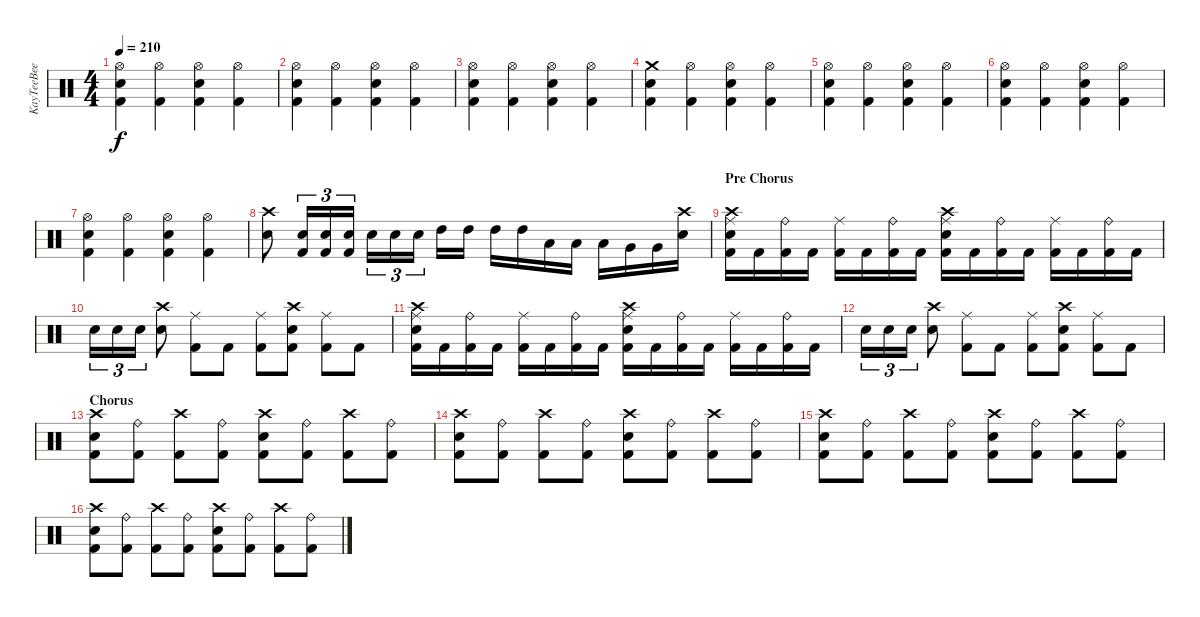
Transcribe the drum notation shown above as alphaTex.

\track ("KayTeeBee" "KayTeeBee") {instrument percussion}
\staff {score}
\articulation defaults
\ts (4 4)
\tempo 210
\clef neutral
\ks c
("Hi-Hat (open)" "Electric Snare (hit)" "Kick (hit) 2").4{dy f} ("Hi-Hat (open)" "Kick (hit) 2").4 ("Hi-Hat (open)" "Electric Snare (hit)" "Kick (hit) 2").4 ("Hi-Hat (open)" "Kick (hit) 2").4 |
("Hi-Hat (open)" "Electric Snare (hit)" "Kick (hit) 2").4 ("Hi-Hat (open)" "Kick (hit) 2").4 ("Hi-Hat (open)" "Electric Snare (hit)" "Kick (hit) 2").4 ("Hi-Hat (open)" "Kick (hit) 2").4 |
("Hi-Hat (open)" "Electric Snare (hit)" "Kick (hit) 2").4 ("Hi-Hat (open)" "Kick (hit) 2").4 ("Hi-Hat (open)" "Electric Snare (hit)" "Kick (hit) 2").4 ("Hi-Hat (open)" "Kick (hit) 2").4 |
("Crash medium (hit)" "Electric Snare (hit)" "Kick (hit) 2").4 ("Hi-Hat (open)" "Kick (hit) 2").4 ("Hi-Hat (open)" "Electric Snare (hit)" "Kick (hit) 2").4 ("Hi-Hat (open)" "Kick (hit) 2").4 |
("Hi-Hat (open)" "Electric Snare (hit)" "Kick (hit) 2").4 ("Hi-Hat (open)" "Kick (hit) 2").4 ("Hi-Hat (open)" "Electric Snare (hit)" "Kick (hit) 2").4 ("Hi-Hat (open)" "Kick (hit) 2").4 |
("Hi-Hat (open)" "Electric Snare (hit)" "Kick (hit) 2").4 ("Hi-Hat (open)" "Kick (hit) 2").4 ("Hi-Hat (open)" "Electric Snare (hit)" "Kick (hit) 2").4 ("Hi-Hat (open)" "Kick (hit) 2").4 |
("Hi-Hat (open)" "Electric Snare (hit)" "Kick (hit) 2").4 ("Hi-Hat (open)" "Kick (hit) 2").4 ("Hi-Hat (open)" "Electric Snare (hit)" "Kick (hit) 2").4 ("Hi-Hat (open)" "Kick (hit) 2").4 |
("Crash high (hit)" "Electric Snare (hit)").8 ("Kick (hit) 2" "Electric Snare (hit)").16{tu (3 2)} ("Kick (hit) 2" "Electric Snare (hit)").16{tu (3 2)} ("Kick (hit) 2" "Electric Snare (hit)").16{tu (3 2)} "Electric Snare (hit)".16{tu (3 2)} "Electric Snare (hit)".16{tu (3 2)} "Electric Snare (hit)".16{tu (3 2)} "High Tom (hit)".16 "High Tom (hit)".16 "High Tom (hit)".16 "High Tom (hit)".16 "Low Tom (hit)".16 "Low Tom (hit)".16 "Low Tom (hit)".16 "Very Low Tom (hit)".16 "Very Low Tom (hit)".16 ("Electric Snare (hit)" "Crash high (hit)").16 |
\section ("" "Pre Chorus")
("Kick (hit) 2" "Electric Snare (hit)" "Crash high (hit)" "Ride (middle)").16 "Kick (hit) 2".16 ("Kick (hit) 2" "Ride (bell)").16 "Kick (hit) 2".16 ("Kick (hit) 2" "Ride (middle)").16 "Kick (hit) 2".16 ("Kick (hit) 2" "Ride (bell)").16 "Kick (hit) 2".16 ("Kick (hit) 2" "Electric Snare (hit)" "Crash high (hit)" "Ride (middle)").16 "Kick (hit) 2".16 ("Kick (hit) 2" "Ride (bell)").16 "Kick (hit) 2".16 ("Kick (hit) 2" "Ride (middle)").16 "Kick (hit) 2".16 ("Kick (hit) 2" "Ride (bell)").16 "Kick (hit) 2".16 |
"Electric Snare (hit)".16{tu (3 2)} "Electric Snare (hit)".16{tu (3 2)} "Electric Snare (hit)".16{tu (3 2)} ("Crash high (hit)" "Electric Snare (hit)").8 ("Kick (hit) 2" "Ride (middle)").8 "Kick (hit) 2".8 ("Kick (hit) 2" "Ride (middle)").8 ("Kick (hit) 2" "Crash high (hit)" "Electric Snare (hit)").8 ("Kick (hit) 2" "Ride (middle)").8 "Kick (hit) 2".8 |
("Kick (hit) 2" "Electric Snare (hit)" "Crash high (hit)" "Ride (middle)").16 "Kick (hit) 2".16 ("Kick (hit) 2" "Ride (bell)").16 "Kick (hit) 2".16 ("Kick (hit) 2" "Ride (middle)").16 "Kick (hit) 2".16 ("Kick (hit) 2" "Ride (bell)").16 "Kick (hit) 2".16 ("Kick (hit) 2" "Electric Snare (hit)" "Crash high (hit)" "Ride (middle)").16 "Kick (hit) 2".16 ("Kick (hit) 2" "Ride (bell)").16 "Kick (hit) 2".16 ("Kick (hit) 2" "Ride (middle)").16 "Kick (hit) 2".16 ("Kick (hit) 2" "Ride (bell)").16 "Kick (hit) 2".16 |
"Electric Snare (hit)".16{tu (3 2)} "Electric Snare (hit)".16{tu (3 2)} "Electric Snare (hit)".16{tu (3 2)} ("Crash high (hit)" "Electric Snare (hit)").8 ("Kick (hit) 2" "Ride (middle)").8 "Kick (hit) 2".8 ("Kick (hit) 2" "Ride (middle)").8 ("Kick (hit) 2" "Crash high (hit)" "Electric Snare (hit)").8 ("Kick (hit) 2" "Ride (middle)").8 "Kick (hit) 2".8 |
\section ("" "Chorus")
("Kick (hit) 2" "Electric Snare (hit)" "Crash high (hit)").8 ("Kick (hit) 2" "Ride (bell)").8 ("Kick (hit) 2" "Crash high (hit)").8 ("Kick (hit) 2" "Ride (bell)").8 ("Kick (hit) 2" "Crash high (hit)" "Electric Snare (hit)").8 ("Kick (hit) 2" "Ride (bell)").8 ("Kick (hit) 2" "Crash high (hit)").8 ("Kick (hit) 2" "Ride (bell)").8 |
("Kick (hit) 2" "Electric Snare (hit)" "Crash high (hit)").8 ("Kick (hit) 2" "Ride (bell)").8 ("Kick (hit) 2" "Crash high (hit)").8 ("Kick (hit) 2" "Ride (bell)").8 ("Kick (hit) 2" "Crash high (hit)" "Electric Snare (hit)").8 ("Kick (hit) 2" "Ride (bell)").8 ("Kick (hit) 2" "Crash high (hit)").8 ("Kick (hit) 2" "Ride (bell)").8 |
("Kick (hit) 2" "Electric Snare (hit)" "Crash high (hit)").8 ("Kick (hit) 2" "Ride (bell)").8 ("Kick (hit) 2" "Crash high (hit)").8 ("Kick (hit) 2" "Ride (bell)").8 ("Kick (hit) 2" "Crash high (hit)" "Electric Snare (hit)").8 ("Kick (hit) 2" "Ride (bell)").8 ("Kick (hit) 2" "Crash high (hit)").8 ("Kick (hit) 2" "Ride (bell)").8 |
("Kick (hit) 2" "Electric Snare (hit)" "Crash high (hit)").8 ("Kick (hit) 2" "Ride (bell)").8 ("Kick (hit) 2" "Crash high (hit)").8 ("Kick (hit) 2" "Ride (bell)").8 ("Kick (hit) 2" "Crash high (hit)" "Electric Snare (hit)").8 ("Kick (hit) 2" "Ride (bell)").8 ("Kick (hit) 2" "Crash high (hit)").8 ("Kick (hit) 2" "Ride (bell)").8
